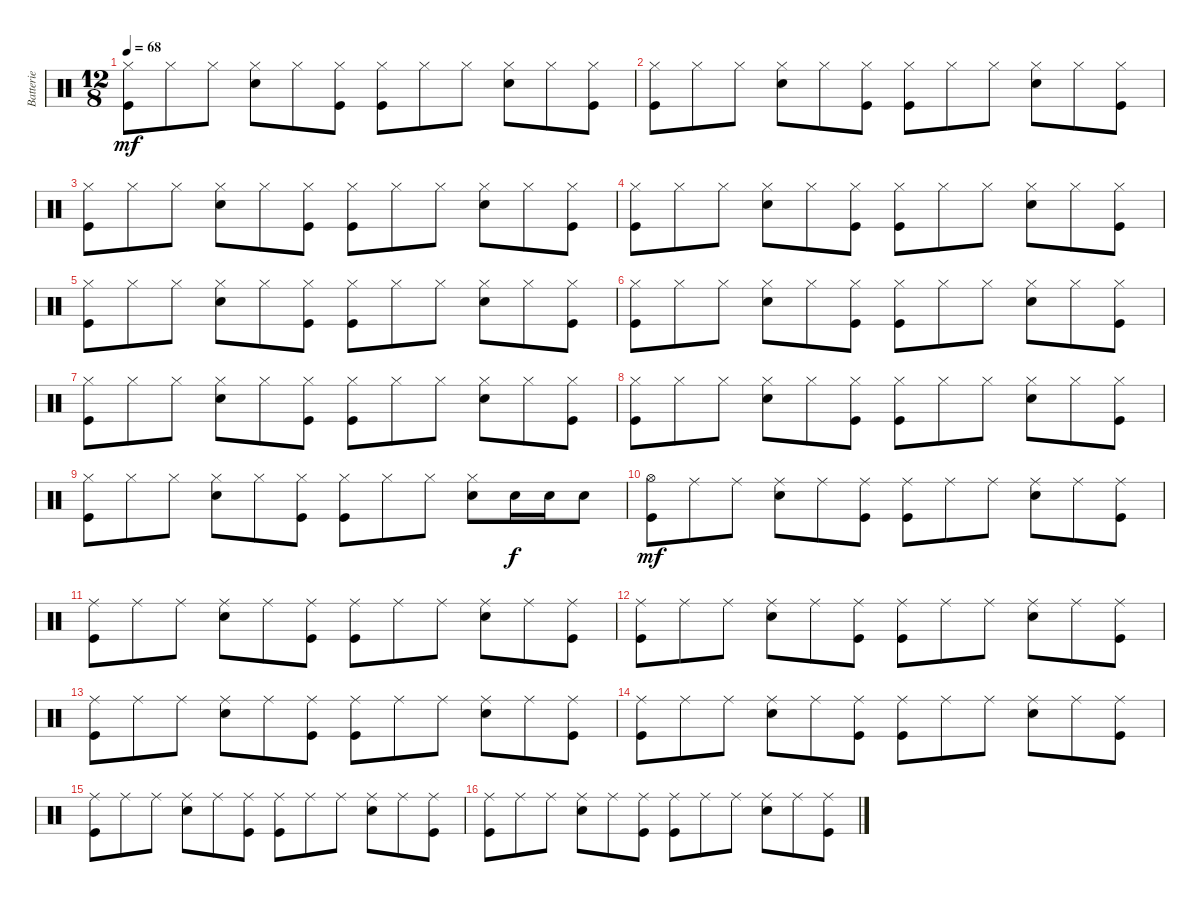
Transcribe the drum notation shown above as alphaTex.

\track ("Batterie" "Batterie") {instrument percussion}
\staff {score}
\articulation defaults
\ts (12 8)
\tempo 68
\clef neutral
\ks c
("Hi-Hat (closed)" "Kick (hit)").8{dy mf} "Hi-Hat (closed)".8 "Hi-Hat (closed)".8 ("Hi-Hat (closed)" "Snare (hit) 2").8 "Hi-Hat (closed)".8 ("Hi-Hat (closed)" "Kick (hit)").8 ("Hi-Hat (closed)" "Kick (hit)").8 "Hi-Hat (closed)".8 "Hi-Hat (closed)".8 ("Hi-Hat (closed)" "Snare (hit) 2").8 "Hi-Hat (closed)".8 ("Hi-Hat (closed)" "Kick (hit)").8 |
("Hi-Hat (closed)" "Kick (hit)").8 "Hi-Hat (closed)".8 "Hi-Hat (closed)".8 ("Hi-Hat (closed)" "Snare (hit) 2").8 "Hi-Hat (closed)".8 ("Hi-Hat (closed)" "Kick (hit)").8 ("Hi-Hat (closed)" "Kick (hit)").8 "Hi-Hat (closed)".8 "Hi-Hat (closed)".8 ("Hi-Hat (closed)" "Snare (hit) 2").8 "Hi-Hat (closed)".8 ("Hi-Hat (closed)" "Kick (hit)").8 |
("Hi-Hat (closed)" "Kick (hit)").8 "Hi-Hat (closed)".8 "Hi-Hat (closed)".8 ("Hi-Hat (closed)" "Snare (hit) 2").8 "Hi-Hat (closed)".8 ("Hi-Hat (closed)" "Kick (hit)").8 ("Hi-Hat (closed)" "Kick (hit)").8 "Hi-Hat (closed)".8 "Hi-Hat (closed)".8 ("Hi-Hat (closed)" "Snare (hit) 2").8 "Hi-Hat (closed)".8 ("Hi-Hat (closed)" "Kick (hit)").8 |
("Hi-Hat (closed)" "Kick (hit)").8 "Hi-Hat (closed)".8 "Hi-Hat (closed)".8 ("Hi-Hat (closed)" "Snare (hit) 2").8 "Hi-Hat (closed)".8 ("Hi-Hat (closed)" "Kick (hit)").8 ("Hi-Hat (closed)" "Kick (hit)").8 "Hi-Hat (closed)".8 "Hi-Hat (closed)".8 ("Hi-Hat (closed)" "Snare (hit) 2").8 "Hi-Hat (closed)".8 ("Hi-Hat (closed)" "Kick (hit)").8 |
("Hi-Hat (closed)" "Kick (hit)").8 "Hi-Hat (closed)".8 "Hi-Hat (closed)".8 ("Hi-Hat (closed)" "Snare (hit) 2").8 "Hi-Hat (closed)".8 ("Hi-Hat (closed)" "Kick (hit)").8 ("Hi-Hat (closed)" "Kick (hit)").8 "Hi-Hat (closed)".8 "Hi-Hat (closed)".8 ("Hi-Hat (closed)" "Snare (hit) 2").8 "Hi-Hat (closed)".8 ("Hi-Hat (closed)" "Kick (hit)").8 |
("Hi-Hat (closed)" "Kick (hit)").8 "Hi-Hat (closed)".8 "Hi-Hat (closed)".8 ("Hi-Hat (closed)" "Snare (hit) 2").8 "Hi-Hat (closed)".8 ("Hi-Hat (closed)" "Kick (hit)").8 ("Hi-Hat (closed)" "Kick (hit)").8 "Hi-Hat (closed)".8 "Hi-Hat (closed)".8 ("Hi-Hat (closed)" "Snare (hit) 2").8 "Hi-Hat (closed)".8 ("Hi-Hat (closed)" "Kick (hit)").8 |
("Hi-Hat (closed)" "Kick (hit)").8 "Hi-Hat (closed)".8 "Hi-Hat (closed)".8 ("Hi-Hat (closed)" "Snare (hit) 2").8 "Hi-Hat (closed)".8 ("Hi-Hat (closed)" "Kick (hit)").8 ("Hi-Hat (closed)" "Kick (hit)").8 "Hi-Hat (closed)".8 "Hi-Hat (closed)".8 ("Hi-Hat (closed)" "Snare (hit) 2").8 "Hi-Hat (closed)".8 ("Hi-Hat (closed)" "Kick (hit)").8 |
("Hi-Hat (closed)" "Kick (hit)").8 "Hi-Hat (closed)".8 "Hi-Hat (closed)".8 ("Hi-Hat (closed)" "Snare (hit) 2").8 "Hi-Hat (closed)".8 ("Hi-Hat (closed)" "Kick (hit)").8 ("Hi-Hat (closed)" "Kick (hit)").8 "Hi-Hat (closed)".8 "Hi-Hat (closed)".8 ("Hi-Hat (closed)" "Snare (hit) 2").8 "Hi-Hat (closed)".8 ("Hi-Hat (closed)" "Kick (hit)").8 |
("Hi-Hat (closed)" "Kick (hit)").8 "Hi-Hat (closed)".8 "Hi-Hat (closed)".8 ("Hi-Hat (closed)" "Snare (hit) 2").8 "Hi-Hat (closed)".8 ("Hi-Hat (closed)" "Kick (hit)").8 ("Hi-Hat (closed)" "Kick (hit)").8 "Hi-Hat (closed)".8 "Hi-Hat (closed)".8 ("Hi-Hat (closed)" "Snare (hit) 2").8 "Snare (hit) 2".16{dy f} "Snare (hit) 2".16 "Snare (hit) 2".8 |
("Hi-Hat (open)" "Kick (hit)").8{dy mf} "Ride (middle)".8 "Ride (middle)".8 ("Ride (middle)" "Snare (hit) 2").8 "Ride (middle)".8 ("Ride (middle)" "Kick (hit)").8 ("Ride (middle)" "Kick (hit)").8 "Ride (middle)".8 "Ride (middle)".8 ("Ride (middle)" "Snare (hit) 2").8 "Ride (middle)".8 ("Ride (middle)" "Kick (hit)").8 |
("Ride (middle)" "Kick (hit)").8 "Ride (middle)".8 "Ride (middle)".8 ("Ride (middle)" "Snare (hit) 2").8 "Ride (middle)".8 ("Ride (middle)" "Kick (hit)").8 ("Ride (middle)" "Kick (hit)").8 "Ride (middle)".8 "Ride (middle)".8 ("Ride (middle)" "Snare (hit) 2").8 "Ride (middle)".8 ("Ride (middle)" "Kick (hit)").8 |
("Ride (middle)" "Kick (hit)").8 "Ride (middle)".8 "Ride (middle)".8 ("Ride (middle)" "Snare (hit) 2").8 "Ride (middle)".8 ("Ride (middle)" "Kick (hit)").8 ("Ride (middle)" "Kick (hit)").8 "Ride (middle)".8 "Ride (middle)".8 ("Ride (middle)" "Snare (hit) 2").8 "Ride (middle)".8 ("Ride (middle)" "Kick (hit)").8 |
("Ride (middle)" "Kick (hit)").8 "Ride (middle)".8 "Ride (middle)".8 ("Ride (middle)" "Snare (hit) 2").8 "Ride (middle)".8 ("Ride (middle)" "Kick (hit)").8 ("Ride (middle)" "Kick (hit)").8 "Ride (middle)".8 "Ride (middle)".8 ("Ride (middle)" "Snare (hit) 2").8 "Ride (middle)".8 ("Ride (middle)" "Kick (hit)").8 |
("Ride (middle)" "Kick (hit)").8 "Ride (middle)".8 "Ride (middle)".8 ("Ride (middle)" "Snare (hit) 2").8 "Ride (middle)".8 ("Ride (middle)" "Kick (hit)").8 ("Ride (middle)" "Kick (hit)").8 "Ride (middle)".8 "Ride (middle)".8 ("Ride (middle)" "Snare (hit) 2").8 "Ride (middle)".8 ("Ride (middle)" "Kick (hit)").8 |
("Ride (middle)" "Kick (hit)").8 "Ride (middle)".8 "Ride (middle)".8 ("Ride (middle)" "Snare (hit) 2").8 "Ride (middle)".8 ("Ride (middle)" "Kick (hit)").8 ("Ride (middle)" "Kick (hit)").8 "Ride (middle)".8 "Ride (middle)".8 ("Ride (middle)" "Snare (hit) 2").8 "Ride (middle)".8 ("Ride (middle)" "Kick (hit)").8 |
("Ride (middle)" "Kick (hit)").8 "Ride (middle)".8 "Ride (middle)".8 ("Ride (middle)" "Snare (hit) 2").8 "Ride (middle)".8 ("Ride (middle)" "Kick (hit)").8 ("Ride (middle)" "Kick (hit)").8 "Ride (middle)".8 "Ride (middle)".8 ("Ride (middle)" "Snare (hit) 2").8 "Ride (middle)".8 ("Ride (middle)" "Kick (hit)").8
